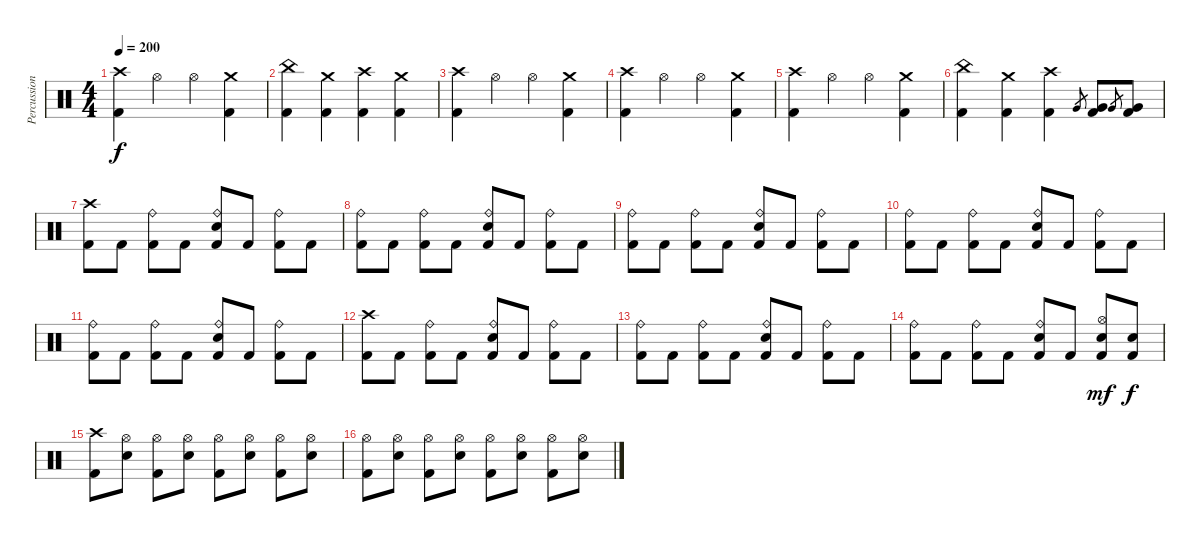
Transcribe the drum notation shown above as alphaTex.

\track ("Percussions" "Percussion") {instrument percussion}
\staff {score}
\articulation defaults
\ts (4 4)
\tempo 200
\clef neutral
\ks c
("Crash high (hit)" "Kick (hit) 2").4{dy f} "Hi-Hat (open)".4 "Hi-Hat (open)".4 ("Crash medium (hit)" "Kick (hit) 2").4 |
("China (hit)" "Kick (hit) 2").4 ("Crash medium (hit)" "Kick (hit) 2").4 ("Crash high (hit)" "Kick (hit) 2").4 ("Crash medium (hit)" "Kick (hit) 2").4 |
("Crash high (hit)" "Kick (hit) 2").4 "Hi-Hat (open)".4 "Hi-Hat (open)".4 ("Crash medium (hit)" "Kick (hit) 2").4 |
("Crash high (hit)" "Kick (hit) 2").4 "Hi-Hat (open)".4 "Hi-Hat (open)".4 ("Crash medium (hit)" "Kick (hit) 2").4 |
("Crash high (hit)" "Kick (hit) 2").4 "Hi-Hat (open)".4 "Hi-Hat (open)".4 ("Crash medium (hit)" "Kick (hit) 2").4 |
("China (hit)" "Kick (hit) 2").4 ("Crash medium (hit)" "Kick (hit) 2").4 ("Crash high (hit)" "Kick (hit) 2").4 "Very Low Tom (hit)".8{gr} ("Very Low Tom (hit)" "Kick (hit) 2").8 "Very Low Tom (hit)".8{gr} ("Very Low Tom (hit)" "Kick (hit) 2").8 |
("Crash high (hit)" "Kick (hit) 2").8 "Kick (hit) 2".8 ("Ride (bell)" "Kick (hit) 2").8 "Kick (hit) 2".8 ("Ride (bell)" "Electric Snare (hit)" "Kick (hit) 2").8 "Kick (hit) 2".8 ("Ride (bell)" "Kick (hit) 2").8 "Kick (hit) 2".8 |
("Ride (bell)" "Kick (hit) 2").8 "Kick (hit) 2".8 ("Ride (bell)" "Kick (hit) 2").8 "Kick (hit) 2".8 ("Ride (bell)" "Electric Snare (hit)" "Kick (hit) 2").8 "Kick (hit) 2".8 ("Ride (bell)" "Kick (hit) 2").8 "Kick (hit) 2".8 |
("Ride (bell)" "Kick (hit) 2").8 "Kick (hit) 2".8 ("Ride (bell)" "Kick (hit) 2").8 "Kick (hit) 2".8 ("Ride (bell)" "Electric Snare (hit)" "Kick (hit) 2").8 "Kick (hit) 2".8 ("Ride (bell)" "Kick (hit) 2").8 "Kick (hit) 2".8 |
("Ride (bell)" "Kick (hit) 2").8 "Kick (hit) 2".8 ("Ride (bell)" "Kick (hit) 2").8 "Kick (hit) 2".8 ("Ride (bell)" "Electric Snare (hit)" "Kick (hit) 2").8 "Kick (hit) 2".8 ("Ride (bell)" "Kick (hit) 2").8 "Kick (hit) 2".8 |
("Ride (bell)" "Kick (hit) 2").8 "Kick (hit) 2".8 ("Ride (bell)" "Kick (hit) 2").8 "Kick (hit) 2".8 ("Ride (bell)" "Electric Snare (hit)" "Kick (hit) 2").8 "Kick (hit) 2".8 ("Ride (bell)" "Kick (hit) 2").8 "Kick (hit) 2".8 |
("Crash high (hit)" "Kick (hit) 2").8 "Kick (hit) 2".8 ("Ride (bell)" "Kick (hit) 2").8 "Kick (hit) 2".8 ("Ride (bell)" "Electric Snare (hit)" "Kick (hit) 2").8 "Kick (hit) 2".8 ("Ride (bell)" "Kick (hit) 2").8 "Kick (hit) 2".8 |
("Ride (bell)" "Kick (hit) 2").8 "Kick (hit) 2".8 ("Ride (bell)" "Kick (hit) 2").8 "Kick (hit) 2".8 ("Ride (bell)" "Electric Snare (hit)" "Kick (hit) 2").8 "Kick (hit) 2".8 ("Ride (bell)" "Kick (hit) 2").8 "Kick (hit) 2".8 |
("Ride (bell)" "Kick (hit) 2").8 "Kick (hit) 2".8 ("Ride (bell)" "Kick (hit) 2").8 "Kick (hit) 2".8 ("Ride (bell)" "Electric Snare (hit)" "Kick (hit) 2").8 "Kick (hit) 2".8 ("Hi-Hat (open)" "Electric Snare (hit)" "Kick (hit) 2").8{dy mf} ("Electric Snare (hit)" "Kick (hit) 2").8{dy f} |
("Crash high (hit)" "Kick (hit) 2").8 ("Hi-Hat (open)" "Electric Snare (hit)").8 ("Hi-Hat (open)" "Kick (hit) 2").8 ("Hi-Hat (open)" "Electric Snare (hit)").8 ("Hi-Hat (open)" "Kick (hit) 2").8 ("Hi-Hat (open)" "Electric Snare (hit)").8 ("Hi-Hat (open)" "Kick (hit) 2").8 ("Hi-Hat (open)" "Electric Snare (hit)").8 |
("Hi-Hat (open)" "Kick (hit) 2").8 ("Hi-Hat (open)" "Electric Snare (hit)").8 ("Hi-Hat (open)" "Kick (hit) 2").8 ("Hi-Hat (open)" "Electric Snare (hit)").8 ("Hi-Hat (open)" "Kick (hit) 2").8 ("Hi-Hat (open)" "Electric Snare (hit)").8 ("Hi-Hat (open)" "Kick (hit) 2").8 ("Hi-Hat (open)" "Electric Snare (hit)").8
